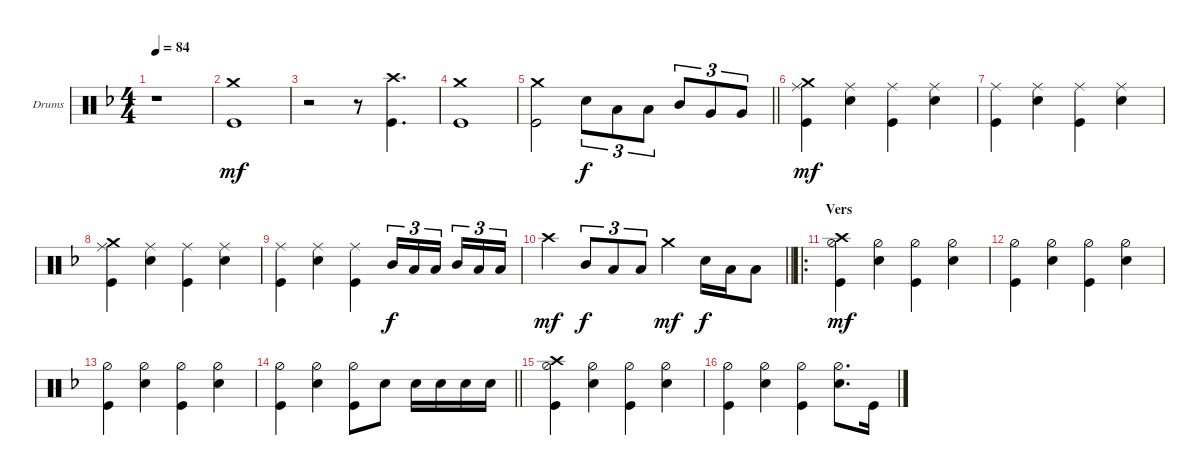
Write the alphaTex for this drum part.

\defaultSystemsLayout 4
\bracketExtendMode groupsimilarinstruments
\firstSystemTrackNameOrientation horizontal
\otherSystemsTrackNameOrientation horizontal
\track ("Drumkit" "Drums") {instrument percussion}
\staff {score}
\articulation defaults
\ts (4 4)
\tempo 84
\clef neutral
\ks dminor
r.1{dy mf} |
("Crash medium (hit)" "Kick (hit)").1 |
r.2 r.8 ("Kick (hit)" "Crash high (hit)").4{d} |
("Kick (hit)" "Crash medium (hit)").1 |
\barLineRight lightlight
("Kick (hit)" "Crash medium (hit)").2 "Snare (hit) 2".8{tu (3 2) dy f} "Low Tom (hit)".8{tu (3 2)} "Low Tom (hit)".8{tu (3 2)} "Mid Tom (hit)".8{tu (3 2)} "Very Low Tom (hit)".8{tu (3 2)} "Very Low Tom (hit)".8{tu (3 2)} |
("Kick (hit)" "Crash medium (hit)" "Ride (middle)").4{dy mf} ("Ride (middle)" "Snare (hit) 2").4 ("Ride (middle)" "Kick (hit)").4 ("Ride (middle)" "Snare (hit) 2").4 |
("Kick (hit)" "Ride (middle)").4 ("Ride (middle)" "Snare (hit) 2").4 ("Ride (middle)" "Kick (hit)").4 ("Ride (middle)" "Snare (hit) 2").4 |
("Kick (hit)" "Crash medium (hit)" "Ride (middle)").4 ("Ride (middle)" "Snare (hit) 2").4 ("Ride (middle)" "Kick (hit)").4 ("Ride (middle)" "Snare (hit) 2").4 |
("Kick (hit)" "Ride (middle)").4 ("Ride (middle)" "Snare (hit) 2").4 ("Ride (middle)" "Kick (hit)").4 "Mid Tom (hit)".16{tu (3 2) dy f} "Low Tom (hit)".16{tu (3 2)} "Low Tom (hit)".16{tu (3 2)} "Mid Tom (hit)".16{tu (3 2)} "Low Tom (hit)".16{tu (3 2)} "Low Tom (hit)".16{tu (3 2)} |
\barLineRight lightlight "Crash high (hit)".4{dy mf} "Mid Tom (hit)".8{tu (3 2) dy f} "Low Tom (hit)".8{tu (3 2)} "Low Tom (hit)".8{tu (3 2)} "Crash medium (hit)".4{dy mf} "Snare (hit) 2".16{dy f} "Low Tom (hit)".16 "Low Tom (hit)".8
|
\ro
\section ("" "Vers")
("Crash high (hit)" "Kick (hit)" "Hi-Hat (half)").4{dy mf} ("Hi-Hat (half)" "Snare (hit) 2").4 ("Hi-Hat (half)" "Kick (hit)").4 ("Hi-Hat (half)" "Snare (hit) 2").4 |
("Kick (hit)" "Hi-Hat (half)").4 ("Hi-Hat (half)" "Snare (hit) 2").4 ("Hi-Hat (half)" "Kick (hit)").4 ("Hi-Hat (half)" "Snare (hit) 2").4 |
("Kick (hit)" "Hi-Hat (half)").4 ("Hi-Hat (half)" "Snare (hit) 2").4 ("Hi-Hat (half)" "Kick (hit)").4 ("Hi-Hat (half)" "Snare (hit) 2").4 |
\barLineRight lightlight
("Kick (hit)" "Hi-Hat (half)").4 ("Hi-Hat (half)" "Snare (hit) 2").4 ("Hi-Hat (half)" "Kick (hit)").8 "Snare (hit) 2".8 "Snare (hit) 2".16 "Snare (hit) 2".16 "Snare (hit) 2".16 "Snare (hit) 2".16 |
("Kick (hit)" "Hi-Hat (half)" "Crash high (hit)").4 ("Hi-Hat (half)" "Snare (hit) 2").4 ("Hi-Hat (half)" "Kick (hit)").4 ("Hi-Hat (half)" "Snare (hit) 2").4 |
("Kick (hit)" "Hi-Hat (half)").4 ("Hi-Hat (half)" "Snare (hit) 2").4 ("Hi-Hat (half)" "Kick (hit)").4 ("Hi-Hat (half)" "Snare (hit) 2").8{d} "Kick (hit)".16
